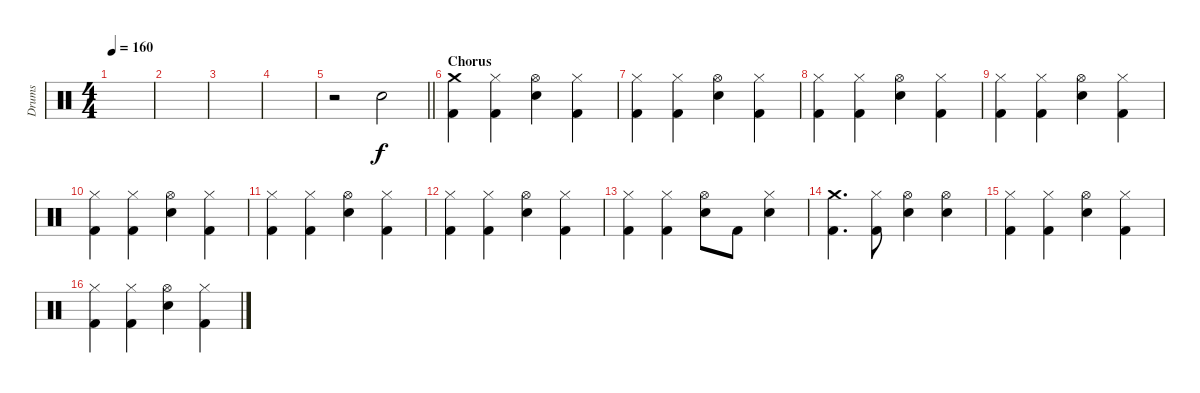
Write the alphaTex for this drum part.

\track ("Drums" "Drums") {instrument percussion}
\staff {score}
\articulation defaults
\ts (4 4)
\tempo 160
\clef neutral
\ks c
|
|
|
|
\barLineRight lightlight
r.2 "Snare (hit) 2".2 |
\section ("" "Chorus")
("Crash medium (hit)" "Kick (hit) 2").4 ("Hi-Hat (closed)" "Kick (hit) 2").4 ("Hi-Hat (open)" "Snare (hit) 2").4 ("Hi-Hat (closed)" "Kick (hit) 2").4 |
("Hi-Hat (closed)" "Kick (hit) 2").4 ("Hi-Hat (closed)" "Kick (hit) 2").4 ("Hi-Hat (open)" "Snare (hit) 2").4 ("Hi-Hat (closed)" "Kick (hit) 2").4 |
("Hi-Hat (closed)" "Kick (hit) 2").4 ("Hi-Hat (closed)" "Kick (hit) 2").4 ("Hi-Hat (open)" "Snare (hit) 2").4 ("Hi-Hat (closed)" "Kick (hit) 2").4 |
("Hi-Hat (closed)" "Kick (hit) 2").4 ("Hi-Hat (closed)" "Kick (hit) 2").4 ("Hi-Hat (open)" "Snare (hit) 2").4 ("Hi-Hat (closed)" "Kick (hit) 2").4 |
("Hi-Hat (closed)" "Kick (hit) 2").4 ("Hi-Hat (closed)" "Kick (hit) 2").4 ("Hi-Hat (open)" "Snare (hit) 2").4 ("Hi-Hat (closed)" "Kick (hit) 2").4 |
("Hi-Hat (closed)" "Kick (hit) 2").4 ("Hi-Hat (closed)" "Kick (hit) 2").4 ("Hi-Hat (open)" "Snare (hit) 2").4 ("Hi-Hat (closed)" "Kick (hit) 2").4 |
("Hi-Hat (closed)" "Kick (hit) 2").4 ("Hi-Hat (closed)" "Kick (hit) 2").4 ("Hi-Hat (open)" "Snare (hit) 2").4 ("Hi-Hat (closed)" "Kick (hit) 2").4 |
("Hi-Hat (closed)" "Kick (hit) 2").4 ("Hi-Hat (closed)" "Kick (hit) 2").4 ("Hi-Hat (open)" "Snare (hit) 2").8 "Kick (hit) 2".8 ("Hi-Hat (closed)" "Snare (hit) 2").4 |
("Crash medium (hit)" "Kick (hit) 2").4{d} ("Hi-Hat (closed)" "Kick (hit) 2").8 ("Hi-Hat (open)" "Snare (hit) 2").4 ("Hi-Hat (open)" "Snare (hit) 2").4 |
("Hi-Hat (closed)" "Kick (hit) 2").4 ("Hi-Hat (closed)" "Kick (hit) 2").4 ("Hi-Hat (open)" "Snare (hit) 2").4 ("Hi-Hat (closed)" "Kick (hit) 2").4 |
("Hi-Hat (closed)" "Kick (hit) 2").4 ("Hi-Hat (closed)" "Kick (hit) 2").4 ("Hi-Hat (open)" "Snare (hit) 2").4 ("Hi-Hat (closed)" "Kick (hit) 2").4
